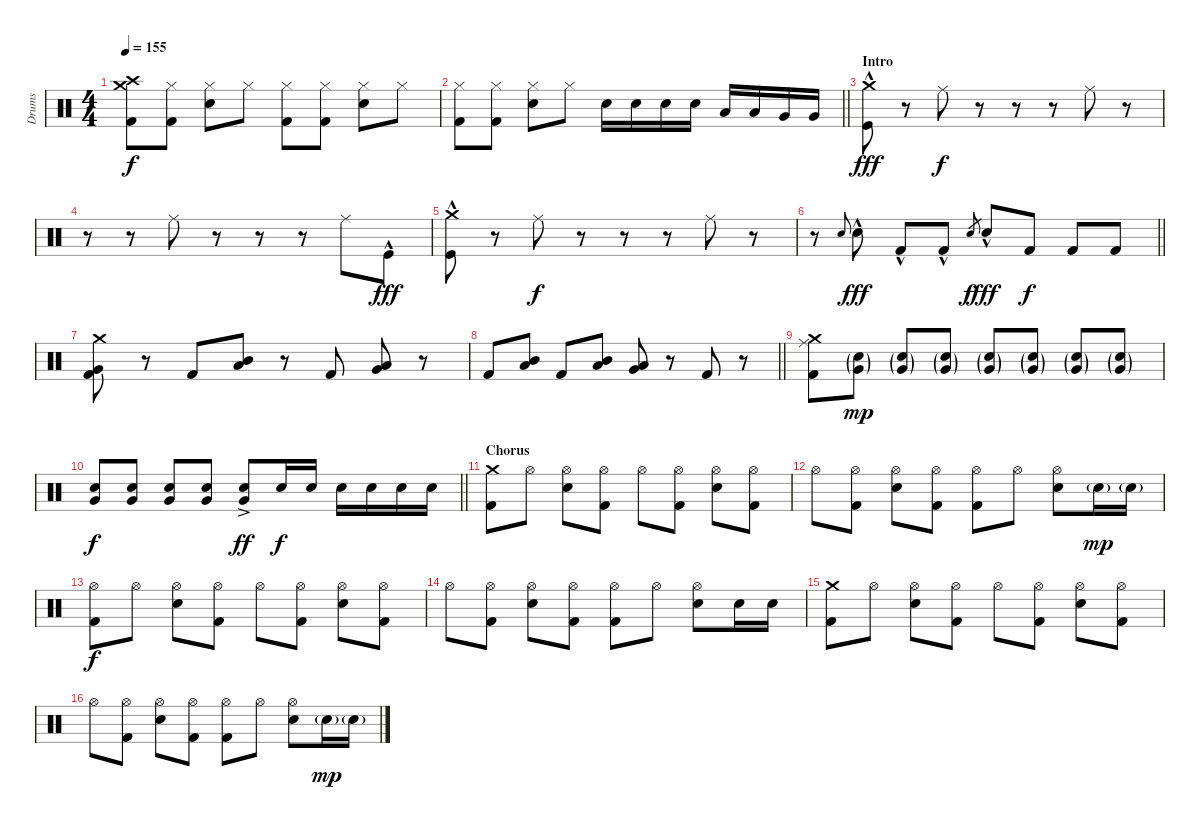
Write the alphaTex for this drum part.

\track ("Drums" "Drums") {instrument percussion}
\staff {score}
\articulation defaults
\ts (4 4)
\tempo 155
\clef neutral
\ks c
("Crash medium (hit)" "Crash high (hit)" "Kick (hit) 2").8{dy f} ("Hi-Hat (closed)" "Kick (hit) 2").8 ("Hi-Hat (closed)" "Snare (hit) 2").8 "Hi-Hat (closed)".8 ("Hi-Hat (closed)" "Kick (hit) 2").8 ("Hi-Hat (closed)" "Kick (hit) 2").8 ("Hi-Hat (closed)" "Snare (hit) 2").8 "Hi-Hat (closed)".8 |
\barLineRight lightlight
("Hi-Hat (closed)" "Kick (hit) 2").8 ("Hi-Hat (closed)" "Kick (hit) 2").8 ("Hi-Hat (closed)" "Snare (hit) 2").8 "Hi-Hat (closed)".8 "Snare (hit) 2".16 "Snare (hit) 2".16 "Snare (hit) 2".16 "Snare (hit) 2".16 "Low Tom (hit)".16 "Low Tom (hit)".16 "Very Low Tom (hit)".16 "Very Low Tom (hit)".16 |
\section ("" "Intro")
("Crash medium (hit)" "Kick (hit)"{hac}).8{dy fff} r.8 "Ride (middle)".8{dy f} r.8 r.8 r.8 "Ride (middle)".8 r.8 |
r.8 r.8 "Ride (middle)".8 r.8 r.8 r.8 "Ride (middle)".8 "Kick (hit)"{hac}.8{dy fff} |
("Crash medium (hit)" "Kick (hit)"{hac}).8 r.8 "Ride (middle)".8{dy f} r.8 r.8 r.8 "Ride (middle)".8 r.8 |
\barLineRight lightlight
r.8 "Snare (hit) 2".8{gr onbeat} "Snare (hit) 2"{hac}.8{dy fff} "Kick (hit) 2"{hac}.8 "Kick (hit) 2"{hac}.8 "Snare (hit) 2".8{gr dy f} "Snare (hit) 2"{hac}.8{dy fff} "Kick (hit) 2".8{dy f} "Kick (hit) 2".8 "Kick (hit) 2".8 |
("Crash medium (hit)" "Very Low Tom (hit)" "Kick (hit) 2").8 r.8 "Kick (hit) 2".8 ("Mid Tom (hit)" "Low Tom (hit)").8 r.8 "Kick (hit) 2".8 ("Low Tom (hit)" "Very Low Tom (hit)").8 r.8 |
\barLineRight lightlight "Kick (hit) 2".8
("Mid Tom (hit)" "Low Tom (hit)").8 "Kick (hit) 2".8 ("Mid Tom (hit)" "Low Tom (hit)").8 ("Low Tom (hit)" "Very Low Tom (hit)").8 r.8 "Kick (hit) 2".8 r.8 |
("Crash medium (hit)" "Ride (middle)" "Kick (hit) 2").8 ("Snare (hit) 2"{g} "Very Low Tom (hit)"{g}).8{dy mp} ("Snare (hit) 2"{g} "Very Low Tom (hit)"{g}).8 ("Snare (hit) 2"{g} "Very Low Tom (hit)"{g}).8 ("Snare (hit) 2"{g} "Very Low Tom (hit)"{g}).8 ("Snare (hit) 2"{g} "Very Low Tom (hit)"{g}).8 ("Snare (hit) 2"{g} "Very Low Tom (hit)"{g}).8 ("Snare (hit) 2"{g} "Very Low Tom (hit)"{g}).8 |
\barLineRight lightlight
("Snare (hit) 2" "Very Low Tom (hit)").8{dy f} ("Snare (hit) 2" "Very Low Tom (hit)").8 ("Snare (hit) 2" "Very Low Tom (hit)").8 ("Snare (hit) 2" "Very Low Tom (hit)").8 ("Snare (hit) 2"{ac} "Very Low Tom (hit)").8{dy ff} "Snare (hit) 2".16{dy f} "Snare (hit) 2".16 "Snare (hit) 2".16 "Snare (hit) 2".16 "Snare (hit) 2".16 "Snare (hit) 2".16 |
\section ("" "Chorus")
("Crash medium (hit)" "Kick (hit) 2").8 "Hi-Hat (open)".8 ("Hi-Hat (open)" "Snare (hit) 2").8 ("Hi-Hat (open)" "Kick (hit) 2").8 "Hi-Hat (open)".8 ("Hi-Hat (open)" "Kick (hit) 2").8 ("Hi-Hat (open)" "Snare (hit) 2").8 ("Hi-Hat (open)" "Kick (hit) 2").8 |
"Hi-Hat (open)".8 ("Hi-Hat (open)" "Kick (hit) 2").8 ("Hi-Hat (open)" "Snare (hit) 2").8 ("Hi-Hat (open)" "Kick (hit) 2").8 ("Hi-Hat (open)" "Kick (hit) 2").8 "Hi-Hat (open)".8 ("Hi-Hat (open)" "Snare (hit) 2").8 "Snare (hit) 2"{g}.16{dy mp} "Snare (hit) 2"{g}.16 |
("Hi-Hat (open)" "Kick (hit) 2").8{dy f} "Hi-Hat (open)".8 ("Hi-Hat (open)" "Snare (hit) 2").8 ("Hi-Hat (open)" "Kick (hit) 2").8 "Hi-Hat (open)".8 ("Hi-Hat (open)" "Kick (hit) 2").8 ("Hi-Hat (open)" "Snare (hit) 2").8 ("Hi-Hat (open)" "Kick (hit) 2").8 |
"Hi-Hat (open)".8 ("Hi-Hat (open)" "Kick (hit) 2").8 ("Hi-Hat (open)" "Snare (hit) 2").8 ("Hi-Hat (open)" "Kick (hit) 2").8 ("Hi-Hat (open)" "Kick (hit) 2").8 "Hi-Hat (open)".8 ("Hi-Hat (open)" "Snare (hit) 2").8 "Snare (hit) 2".16 "Snare (hit) 2".16 |
("Crash medium (hit)" "Kick (hit) 2").8 "Hi-Hat (open)".8 ("Hi-Hat (open)" "Snare (hit) 2").8 ("Hi-Hat (open)" "Kick (hit) 2").8 "Hi-Hat (open)".8 ("Hi-Hat (open)" "Kick (hit) 2").8 ("Hi-Hat (open)" "Snare (hit) 2").8 ("Hi-Hat (open)" "Kick (hit) 2").8 |
"Hi-Hat (open)".8 ("Hi-Hat (open)" "Kick (hit) 2").8 ("Hi-Hat (open)" "Snare (hit) 2").8 ("Hi-Hat (open)" "Kick (hit) 2").8 ("Hi-Hat (open)" "Kick (hit) 2").8 "Hi-Hat (open)".8 ("Hi-Hat (open)" "Snare (hit) 2").8 "Snare (hit) 2"{g}.16{dy mp} "Snare (hit) 2"{g}.16
